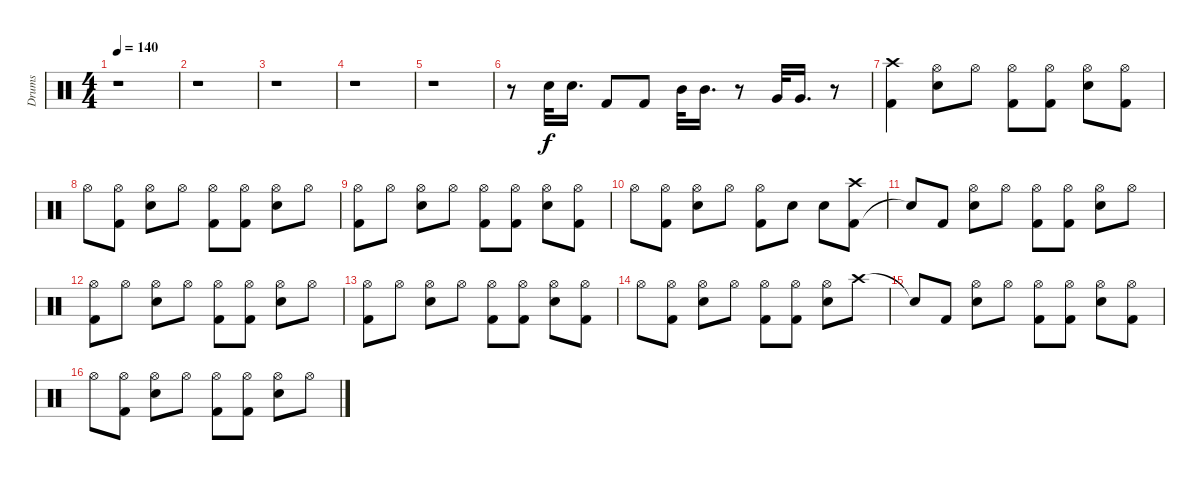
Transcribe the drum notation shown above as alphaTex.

\track ("Drums" "Drums") {instrument percussion}
\staff {score}
\articulation defaults
\ts (4 4)
\tempo 140
\clef neutral
\ks c
r.1{dy f} |
r.1 |
r.1 |
r.1 |
r.1 |
r.8 "Snare (hit) 2".32{volume 14} "Snare (hit) 2".16{d} "Kick (hit) 2".8 "Kick (hit) 2".8 "Mid Tom (hit)".32 "Mid Tom (hit)".16{d} r.8 "Very Low Tom (hit)".32 "Very Low Tom (hit)".16{d} r.8 |
("Crash high (hit)" "Kick (hit) 2").4 ("Hi-Hat (open)" "Snare (hit) 2").8 "Hi-Hat (open)".8 ("Hi-Hat (open)" "Kick (hit) 2").8 ("Hi-Hat (open)" "Kick (hit) 2").8 ("Hi-Hat (open)" "Snare (hit) 2").8 ("Hi-Hat (open)" "Kick (hit) 2").8 |
"Hi-Hat (open)".8 ("Hi-Hat (open)" "Kick (hit) 2").8 ("Hi-Hat (open)" "Snare (hit) 2").8 "Hi-Hat (open)".8 ("Hi-Hat (open)" "Kick (hit) 2").8 ("Hi-Hat (open)" "Kick (hit) 2").8 ("Hi-Hat (open)" "Snare (hit) 2").8 "Hi-Hat (open)".8 |
("Kick (hit) 2" "Hi-Hat (open)").8 "Hi-Hat (open)".8 ("Hi-Hat (open)" "Snare (hit) 2").8 "Hi-Hat (open)".8 ("Hi-Hat (open)" "Kick (hit) 2").8 ("Hi-Hat (open)" "Kick (hit) 2").8 ("Snare (hit) 2" "Hi-Hat (open)").8 ("Kick (hit) 2" "Hi-Hat (open)").8 |
"Hi-Hat (open)".8 ("Hi-Hat (open)" "Kick (hit) 2").8 ("Snare (hit) 2" "Hi-Hat (open)").8 "Hi-Hat (open)".8 ("Kick (hit) 2" "Hi-Hat (open)").8 "Snare (hit) 2".8 "Snare (hit) 2".8 ("Kick (hit) 2" "Crash high (hit)").8 |
"Snare (hit)"{t}.8 "Kick (hit) 2".8 ("Hi-Hat (open)" "Snare (hit) 2").8 "Hi-Hat (open)".8 ("Hi-Hat (open)" "Kick (hit) 2").8 ("Hi-Hat (open)" "Kick (hit) 2").8 ("Hi-Hat (open)" "Snare (hit) 2").8 "Hi-Hat (open)".8 |
("Kick (hit) 2" "Hi-Hat (open)").8 "Hi-Hat (open)".8 ("Hi-Hat (open)" "Snare (hit) 2").8 "Hi-Hat (open)".8 ("Hi-Hat (open)" "Kick (hit) 2").8 ("Kick (hit) 2" "Hi-Hat (open)").8 ("Snare (hit) 2" "Hi-Hat (open)").8 "Hi-Hat (open)".8 |
("Hi-Hat (open)" "Kick (hit) 2").8 "Hi-Hat (open)".8 ("Hi-Hat (open)" "Snare (hit) 2").8 "Hi-Hat (open)".8 ("Hi-Hat (open)" "Kick (hit) 2").8 ("Hi-Hat (open)" "Kick (hit) 2").8 ("Hi-Hat (open)" "Snare (hit) 2").8 ("Hi-Hat (open)" "Kick (hit) 2").8 |
"Hi-Hat (open)".8 ("Hi-Hat (open)" "Kick (hit) 2").8 ("Hi-Hat (open)" "Snare (hit) 2").8 "Hi-Hat (open)".8 ("Hi-Hat (open)" "Kick (hit) 2").8 ("Kick (hit) 2" "Hi-Hat (open)").8 ("Hi-Hat (open)" "Snare (hit) 2").8 "Crash high (hit)".8 |
"Snare (hit)"{t}.8 "Kick (hit) 2".8 ("Hi-Hat (open)" "Snare (hit) 2").8 "Hi-Hat (open)".8 ("Hi-Hat (open)" "Kick (hit) 2").8 ("Hi-Hat (open)" "Kick (hit) 2").8 ("Hi-Hat (open)" "Snare (hit) 2").8 ("Hi-Hat (open)" "Kick (hit) 2").8 |
"Hi-Hat (open)".8 ("Hi-Hat (open)" "Kick (hit) 2").8 ("Hi-Hat (open)" "Snare (hit) 2").8 "Hi-Hat (open)".8 ("Hi-Hat (open)" "Kick (hit) 2").8 ("Hi-Hat (open)" "Kick (hit) 2").8 ("Hi-Hat (open)" "Snare (hit) 2").8 "Hi-Hat (open)".8
